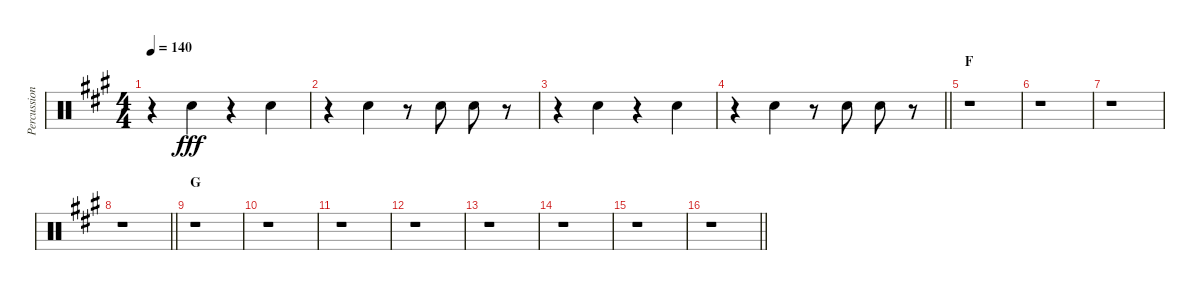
\track ("Percussion" "Percussion") {instrument percussion}
\staff {score}
\articulation defaults
\ts (4 4)
\tempo 140
\clef neutral
\ks a
r.4{dy fff} "Hand Clap (hit)".4 r.4 "Hand Clap (hit)".4 |
r.4 "Hand Clap (hit)".4 r.8 "Hand Clap (hit)".8 "Hand Clap (hit)".8 r.8 |
r.4 "Hand Clap (hit)".4 r.4 "Hand Clap (hit)".4 |
\barLineRight lightlight
r.4 "Hand Clap (hit)".4 r.8 "Hand Clap (hit)".8 "Hand Clap (hit)".8 r.8 |
\section ("" "F")
r.1 |
r.1 |
r.1 |
\barLineRight lightlight
r.1 |
\section ("" "G")
r.1 |
r.1 |
r.1 |
r.1 |
r.1 |
r.1 |
r.1 |
\barLineRight lightlight
r.1
